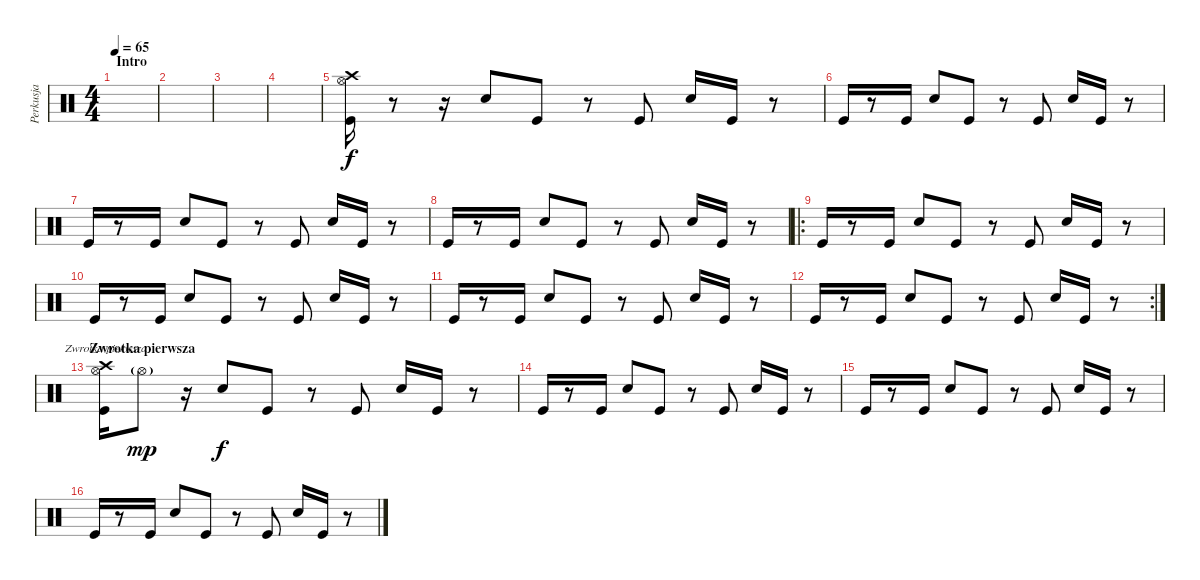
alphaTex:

\track ("Perkusja" "Perkusja") {instrument percussion}
\staff {score}
\articulation defaults
\chord ("Intro")
\chord ("Zwrotka pierwsza")
\ts (4 4)
\section ("" "Intro")
\tempo 65
\clef neutral
\ks c
|
|
|
|
("Kick (hit)" "Hi-Hat (open)" "Crash high (hit)").16 r.8 r.16 "Snare (hit) 2".8 "Kick (hit)".8 r.8 "Kick (hit)".8 "Snare (hit) 2".16 "Kick (hit)".16 r.8 |
"Kick (hit)".16 r.8 "Kick (hit)".16 "Snare (hit) 2".8 "Kick (hit)".8 r.8 "Kick (hit)".8 "Snare (hit) 2".16 "Kick (hit)".16 r.8 |
"Kick (hit)".16 r.8 "Kick (hit)".16 "Snare (hit) 2".8 "Kick (hit)".8 r.8 "Kick (hit)".8 "Snare (hit) 2".16 "Kick (hit)".16 r.8 |
"Kick (hit)".16 r.8 "Kick (hit)".16 "Snare (hit) 2".8 "Kick (hit)".8 r.8 "Kick (hit)".8 "Snare (hit) 2".16 "Kick (hit)".16 r.8 |
\ro "Kick (hit)".16
r.8 "Kick (hit)".16 "Snare (hit) 2".8 "Kick (hit)".8 r.8 "Kick (hit)".8 "Snare (hit) 2".16 "Kick (hit)".16 r.8 |
"Kick (hit)".16 r.8 "Kick (hit)".16 "Snare (hit) 2".8 "Kick (hit)".8 r.8 "Kick (hit)".8 "Snare (hit) 2".16 "Kick (hit)".16 r.8 |
"Kick (hit)".16 r.8 "Kick (hit)".16 "Snare (hit) 2".8 "Kick (hit)".8 r.8 "Kick (hit)".8 "Snare (hit) 2".16 "Kick (hit)".16 r.8 |
\rc 2 "Kick (hit)".16
r.8 "Kick (hit)".16 "Snare (hit) 2".8 "Kick (hit)".8 r.8 "Kick (hit)".8 "Snare (hit) 2".16 "Kick (hit)".16 r.8 |
\section ("" "Zwrotka pierwsza")
("Kick (hit)" "Hi-Hat (open)" "Crash high (hit)").16{ch "Zwrotka pierwsza"} "Hi-Hat (open)"{g}.8{dy mp} r.16 "Snare (hit) 2".8{dy f} "Kick (hit)".8 r.8 "Kick (hit)".8 "Snare (hit) 2".16 "Kick (hit)".16 r.8 |
"Kick (hit)".16 r.8 "Kick (hit)".16 "Snare (hit) 2".8 "Kick (hit)".8 r.8 "Kick (hit)".8 "Snare (hit) 2".16 "Kick (hit)".16 r.8 |
"Kick (hit)".16 r.8 "Kick (hit)".16 "Snare (hit) 2".8 "Kick (hit)".8 r.8 "Kick (hit)".8 "Snare (hit) 2".16 "Kick (hit)".16 r.8 |
"Kick (hit)".16 r.8 "Kick (hit)".16 "Snare (hit) 2".8 "Kick (hit)".8 r.8 "Kick (hit)".8 "Snare (hit) 2".16 "Kick (hit)".16 r.8
